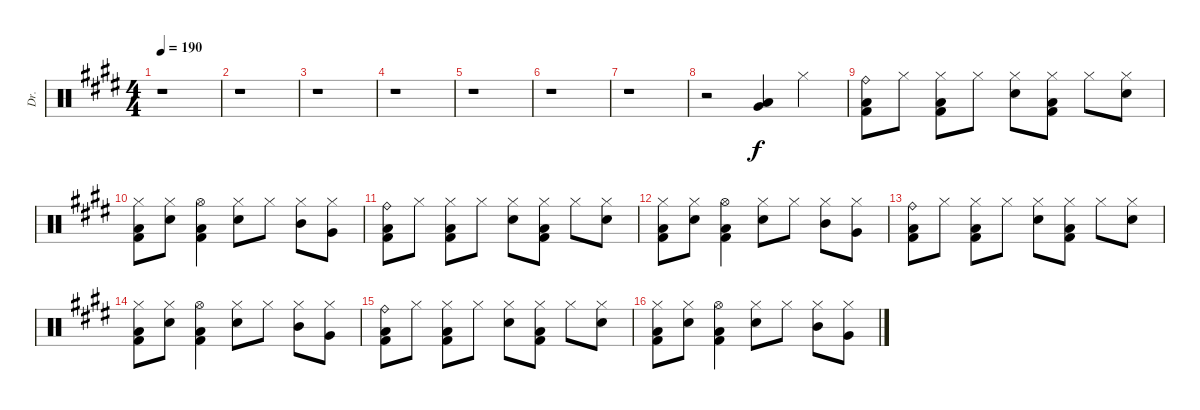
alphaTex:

\track ("Dr." "Dr.") {instrument percussion}
\staff {score}
\articulation defaults
\ts (4 4)
\tempo 190
\clef neutral
\ks e
r.1{dy f} |
r.1 |
r.1 |
r.1 |
r.1 |
r.1 |
r.1 |
r.2 ("Low Floor Tom (hit)" "Very Low Tom (hit)").4 "Hi-Hat (closed)".4 |
("Ride (bell)" "Low Floor Tom (hit)" "Kick (hit) 2").8 "Hi-Hat (closed)".8 ("Hi-Hat (closed)" "Low Floor Tom (hit)" "Kick (hit) 2").8 "Hi-Hat (closed)".8 ("Electric Snare (hit)" "Hi-Hat (closed)").8 ("Hi-Hat (closed)" "Low Floor Tom (hit)" "Kick (hit) 2").8 "Hi-Hat (closed)".8 ("Electric Snare (hit)" "Hi-Hat (closed)").8 |
("Hi-Hat (closed)" "Low Floor Tom (hit)" "Kick (hit) 2").8 ("Electric Snare (hit)" "Hi-Hat (closed)").8 ("Hi-Hat (open)" "Low Floor Tom (hit)" "Kick (hit) 2").4 ("Electric Snare (hit)" "Hi-Hat (closed)").8 "Hi-Hat (closed)".8 ("Mid Tom (hit)" "Hi-Hat (closed)").8 ("Very Low Tom (hit)" "Hi-Hat (closed)").8 |
("Ride (bell)" "Low Floor Tom (hit)" "Kick (hit) 2").8 "Hi-Hat (closed)".8 ("Hi-Hat (closed)" "Low Floor Tom (hit)" "Kick (hit) 2").8 "Hi-Hat (closed)".8 ("Electric Snare (hit)" "Hi-Hat (closed)").8 ("Hi-Hat (closed)" "Low Floor Tom (hit)" "Kick (hit) 2").8 "Hi-Hat (closed)".8 ("Electric Snare (hit)" "Hi-Hat (closed)").8 |
("Hi-Hat (closed)" "Low Floor Tom (hit)" "Kick (hit) 2").8 ("Electric Snare (hit)" "Hi-Hat (closed)").8 ("Hi-Hat (open)" "Low Floor Tom (hit)" "Kick (hit) 2").4 ("Electric Snare (hit)" "Hi-Hat (closed)").8 "Hi-Hat (closed)".8 ("Mid Tom (hit)" "Hi-Hat (closed)").8 ("Very Low Tom (hit)" "Hi-Hat (closed)").8 |
("Ride (bell)" "Low Floor Tom (hit)" "Kick (hit) 2").8 "Hi-Hat (closed)".8 ("Hi-Hat (closed)" "Low Floor Tom (hit)" "Kick (hit) 2").8 "Hi-Hat (closed)".8 ("Electric Snare (hit)" "Hi-Hat (closed)").8 ("Hi-Hat (closed)" "Low Floor Tom (hit)" "Kick (hit) 2").8 "Hi-Hat (closed)".8 ("Electric Snare (hit)" "Hi-Hat (closed)").8 |
("Hi-Hat (closed)" "Low Floor Tom (hit)" "Kick (hit) 2").8 ("Electric Snare (hit)" "Hi-Hat (closed)").8 ("Hi-Hat (open)" "Low Floor Tom (hit)" "Kick (hit) 2").4 ("Electric Snare (hit)" "Hi-Hat (closed)").8 "Hi-Hat (closed)".8 ("Mid Tom (hit)" "Hi-Hat (closed)").8 ("Very Low Tom (hit)" "Hi-Hat (closed)").8 |
("Ride (bell)" "Low Floor Tom (hit)" "Kick (hit) 2").8 "Hi-Hat (closed)".8 ("Hi-Hat (closed)" "Low Floor Tom (hit)" "Kick (hit) 2").8 "Hi-Hat (closed)".8 ("Electric Snare (hit)" "Hi-Hat (closed)").8 ("Hi-Hat (closed)" "Low Floor Tom (hit)" "Kick (hit) 2").8 "Hi-Hat (closed)".8 ("Electric Snare (hit)" "Hi-Hat (closed)").8 |
("Hi-Hat (closed)" "Low Floor Tom (hit)" "Kick (hit) 2").8 ("Electric Snare (hit)" "Hi-Hat (closed)").8 ("Hi-Hat (open)" "Low Floor Tom (hit)" "Kick (hit) 2").4 ("Electric Snare (hit)" "Hi-Hat (closed)").8 "Hi-Hat (closed)".8 ("Mid Tom (hit)" "Hi-Hat (closed)").8 ("Very Low Tom (hit)" "Hi-Hat (closed)").8
